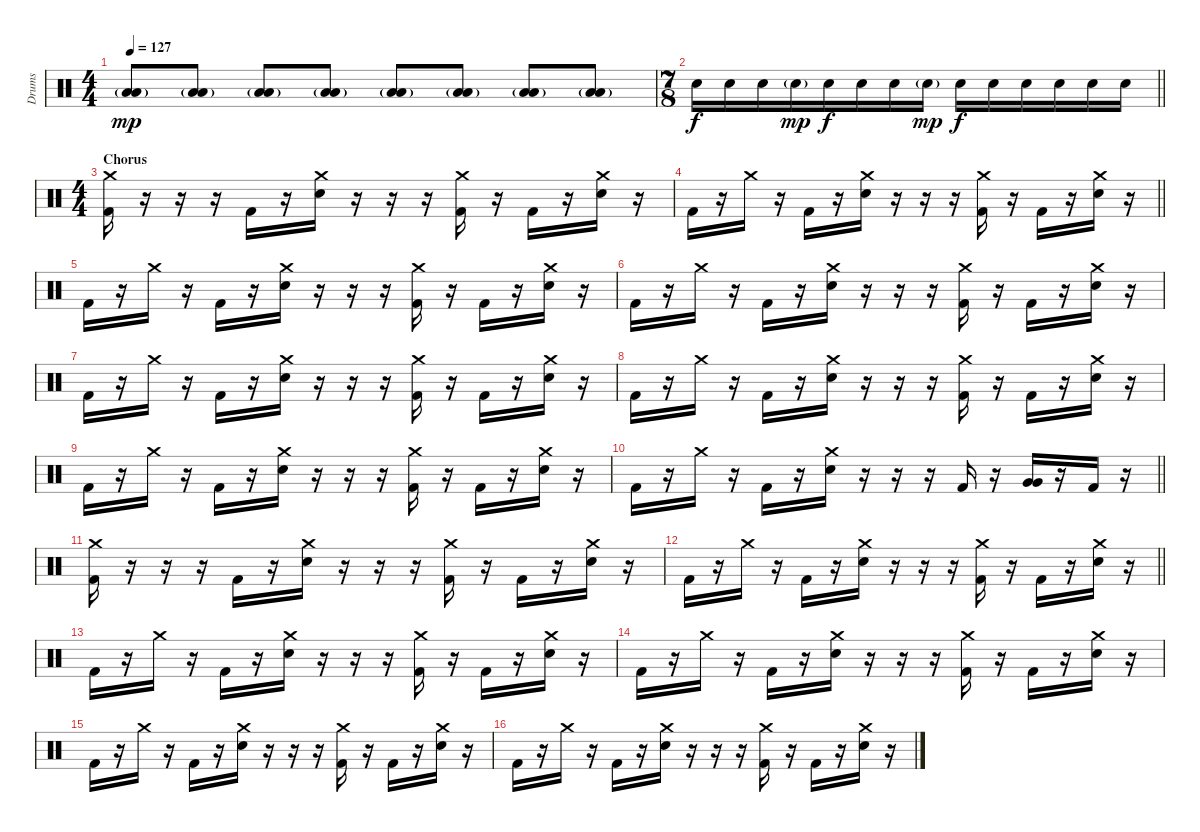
\track ("Drums" "Drums") {instrument percussion}
\staff {score}
\articulation defaults
\ts (4 4)
\tempo 127
\clef neutral
\ks c
("Low Tom (hit)" "Low Floor Tom (hit)"{g}).8{dy mp} ("Low Tom (hit)" "Low Floor Tom (hit)"{g}).8 ("Low Tom (hit)" "Low Floor Tom (hit)"{g}).8 ("Low Tom (hit)" "Low Floor Tom (hit)"{g}).8 ("Low Tom (hit)" "Low Floor Tom (hit)"{g}).8 ("Low Tom (hit)" "Low Floor Tom (hit)"{g}).8 ("Low Tom (hit)" "Low Floor Tom (hit)"{g}).8 ("Low Tom (hit)" "Low Floor Tom (hit)"{g}).8 |
\ts (7 8)
\barLineRight lightlight "Electric Snare (hit)".16{dy f} "Electric Snare (hit)".16 "Electric Snare (hit)".16 "Electric Snare (hit)"{g}.16{dy mp} "Electric Snare (hit)".16{dy f} "Electric Snare (hit)".16 "Electric Snare (hit)".16 "Electric Snare (hit)"{g}.16{dy mp} "Electric Snare (hit)".16{dy f} "Electric Snare (hit)".16 "Electric Snare (hit)".16 "Electric Snare (hit)".16 "Electric Snare (hit)".16 "Electric Snare (hit)".16
|
\ts (4 4)
\section ("" "Chorus")
("Crash medium (hit)" "Kick (hit) 2").16 r.16 r.16 r.16 "Kick (hit) 2".16 r.16 ("Crash medium (hit)" "Electric Snare (hit)").16 r.16 r.16 r.16 ("Crash medium (hit)" "Kick (hit) 2").16 r.16 "Kick (hit) 2".16 r.16 ("Crash medium (hit)" "Electric Snare (hit)").16 r.16 |
\barLineRight lightlight "Kick (hit) 2".16
r.16 "Crash medium (hit)".16 r.16 "Kick (hit) 2".16 r.16 ("Crash medium (hit)" "Electric Snare (hit)").16 r.16 r.16 r.16 ("Crash medium (hit)" "Kick (hit) 2").16 r.16 "Kick (hit) 2".16 r.16 ("Crash medium (hit)" "Electric Snare (hit)").16 r.16 |
"Kick (hit) 2".16 r.16 "Crash medium (hit)".16 r.16 "Kick (hit) 2".16 r.16 ("Crash medium (hit)" "Electric Snare (hit)").16 r.16 r.16 r.16 ("Crash medium (hit)" "Kick (hit) 2").16 r.16 "Kick (hit) 2".16 r.16 ("Crash medium (hit)" "Electric Snare (hit)").16 r.16 |
"Kick (hit) 2".16 r.16 "Crash medium (hit)".16 r.16 "Kick (hit) 2".16 r.16 ("Crash medium (hit)" "Electric Snare (hit)").16 r.16 r.16 r.16 ("Crash medium (hit)" "Kick (hit) 2").16 r.16 "Kick (hit) 2".16 r.16 ("Crash medium (hit)" "Electric Snare (hit)").16 r.16 |
"Kick (hit) 2".16 r.16 "Crash medium (hit)".16 r.16 "Kick (hit) 2".16 r.16 ("Crash medium (hit)" "Electric Snare (hit)").16 r.16 r.16 r.16 ("Crash medium (hit)" "Kick (hit) 2").16 r.16 "Kick (hit) 2".16 r.16 ("Crash medium (hit)" "Electric Snare (hit)").16 r.16 |
"Kick (hit) 2".16 r.16 "Crash medium (hit)".16 r.16 "Kick (hit) 2".16 r.16 ("Crash medium (hit)" "Electric Snare (hit)").16 r.16 r.16 r.16 ("Crash medium (hit)" "Kick (hit) 2").16 r.16 "Kick (hit) 2".16 r.16 ("Crash medium (hit)" "Electric Snare (hit)").16 r.16 |
"Kick (hit) 2".16 r.16 "Crash medium (hit)".16 r.16 "Kick (hit) 2".16 r.16 ("Crash medium (hit)" "Electric Snare (hit)").16 r.16 r.16 r.16 ("Crash medium (hit)" "Kick (hit) 2").16 r.16 "Kick (hit) 2".16 r.16 ("Crash medium (hit)" "Electric Snare (hit)").16 r.16 |
\barLineRight lightlight "Kick (hit) 2".16
r.16 "Crash medium (hit)".16 r.16 "Kick (hit) 2".16 r.16 ("Crash medium (hit)" "Electric Snare (hit)").16 r.16 r.16 r.16 "Kick (hit) 2".16 r.16 ("Very Low Tom (hit)" "Very Low Tom (hit)").16 r.16 "Kick (hit) 2".16 r.16 |
("Crash medium (hit)" "Kick (hit) 2").16 r.16 r.16 r.16 "Kick (hit) 2".16 r.16 ("Crash medium (hit)" "Electric Snare (hit)").16 r.16 r.16 r.16 ("Crash medium (hit)" "Kick (hit) 2").16 r.16 "Kick (hit) 2".16 r.16 ("Crash medium (hit)" "Electric Snare (hit)").16 r.16 |
\barLineRight lightlight "Kick (hit) 2".16
r.16 "Crash medium (hit)".16 r.16 "Kick (hit) 2".16 r.16 ("Crash medium (hit)" "Electric Snare (hit)").16 r.16 r.16 r.16 ("Crash medium (hit)" "Kick (hit) 2").16 r.16 "Kick (hit) 2".16 r.16 ("Crash medium (hit)" "Electric Snare (hit)").16 r.16 |
"Kick (hit) 2".16 r.16 "Crash medium (hit)".16 r.16 "Kick (hit) 2".16 r.16 ("Crash medium (hit)" "Electric Snare (hit)").16 r.16 r.16 r.16 ("Crash medium (hit)" "Kick (hit) 2").16 r.16 "Kick (hit) 2".16 r.16 ("Crash medium (hit)" "Electric Snare (hit)").16 r.16 |
"Kick (hit) 2".16 r.16 "Crash medium (hit)".16 r.16 "Kick (hit) 2".16 r.16 ("Crash medium (hit)" "Electric Snare (hit)").16 r.16 r.16 r.16 ("Crash medium (hit)" "Kick (hit) 2").16 r.16 "Kick (hit) 2".16 r.16 ("Crash medium (hit)" "Electric Snare (hit)").16 r.16 |
"Kick (hit) 2".16 r.16 "Crash medium (hit)".16 r.16 "Kick (hit) 2".16 r.16 ("Crash medium (hit)" "Electric Snare (hit)").16 r.16 r.16 r.16 ("Crash medium (hit)" "Kick (hit) 2").16 r.16 "Kick (hit) 2".16 r.16 ("Crash medium (hit)" "Electric Snare (hit)").16 r.16 |
"Kick (hit) 2".16 r.16 "Crash medium (hit)".16 r.16 "Kick (hit) 2".16 r.16 ("Crash medium (hit)" "Electric Snare (hit)").16 r.16 r.16 r.16 ("Crash medium (hit)" "Kick (hit) 2").16 r.16 "Kick (hit) 2".16 r.16 ("Crash medium (hit)" "Electric Snare (hit)").16 r.16
